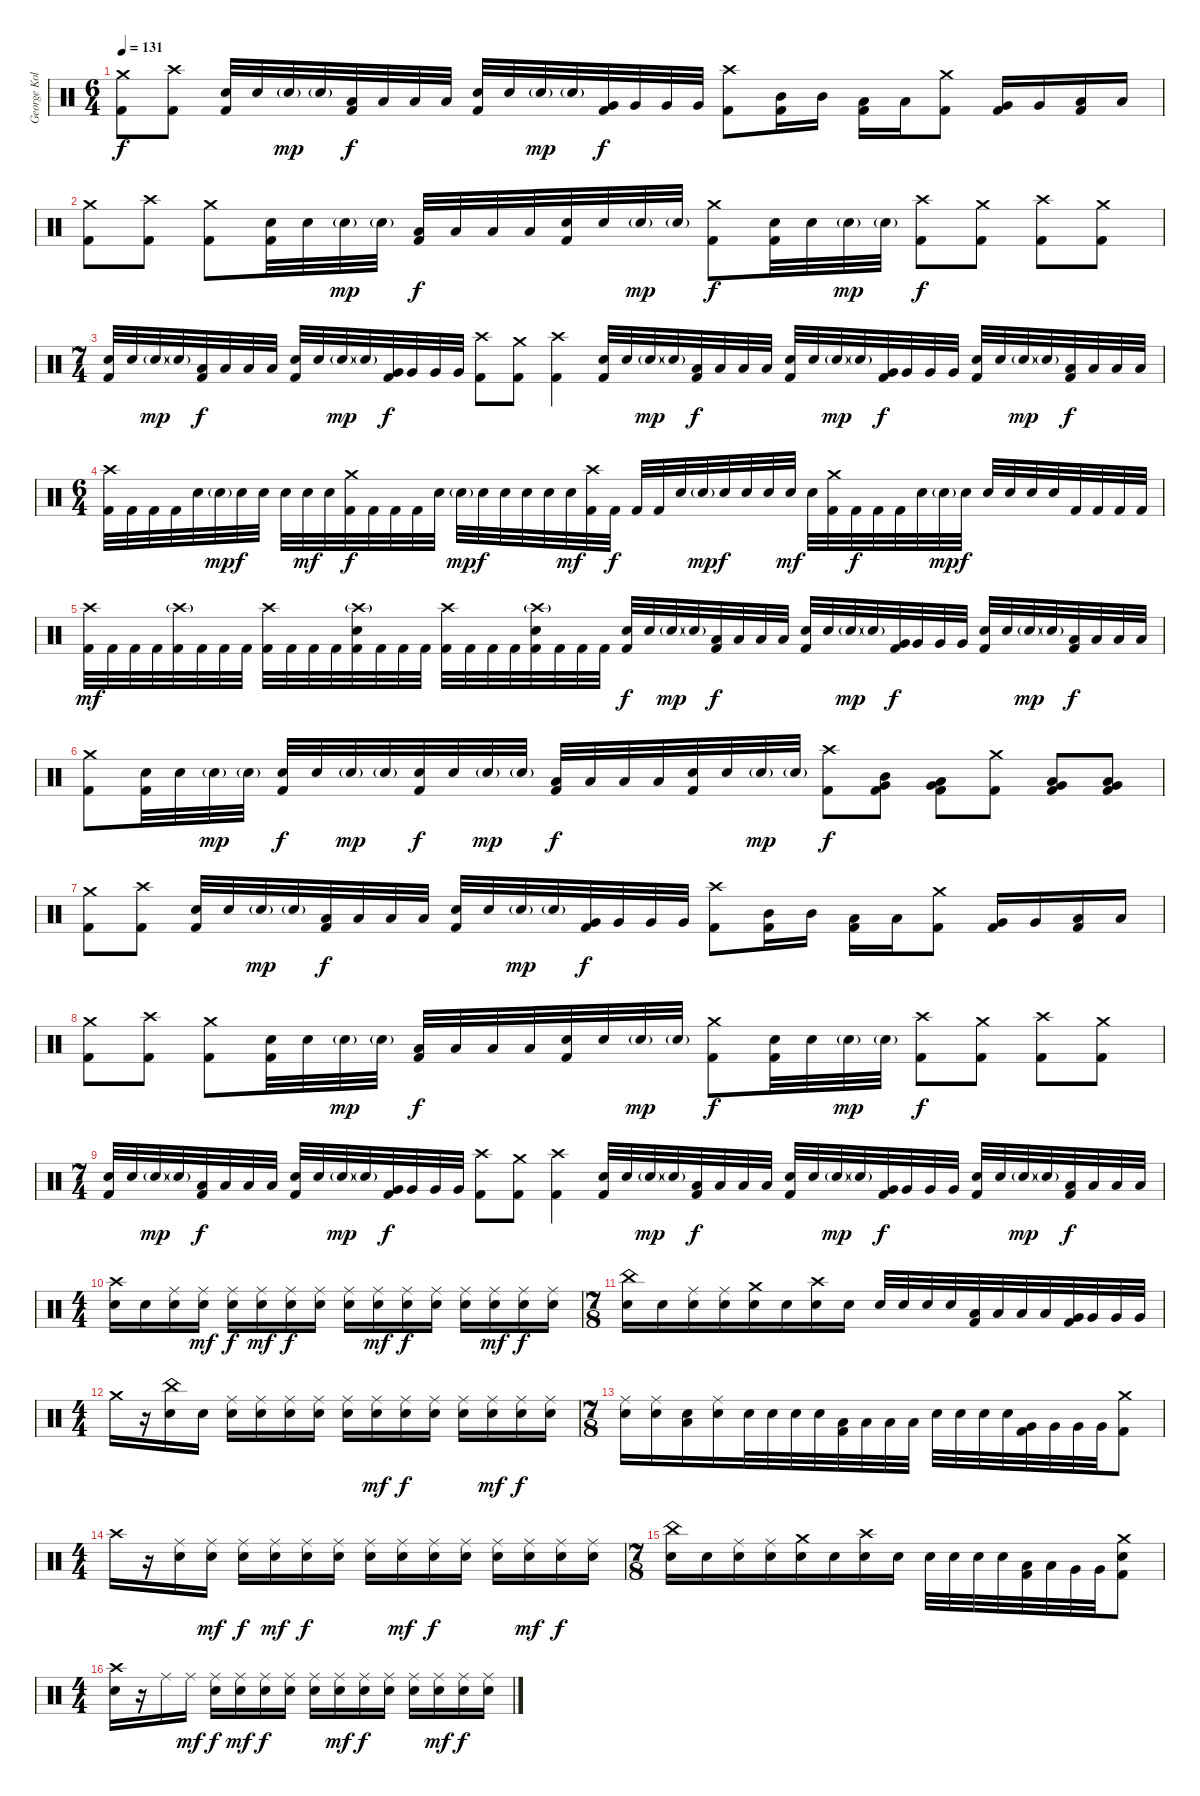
\track ("George Kollias" "George Kol") {instrument percussion}
\staff {score}
\articulation defaults
\ts (6 4)
\tempo 131
\clef neutral
\ks c
("Crash medium (hit)" "Kick (hit) 2").8{dy f} ("Crash high (hit)" "Kick (hit) 2").8 ("Electric Snare (hit)" "Kick (hit) 2").32 "Electric Snare (hit)".32 "Electric Snare (hit)"{g}.32{dy mp} "Electric Snare (hit)"{g}.32 ("Low Tom (hit)" "Kick (hit) 2").32{dy f} "Low Tom (hit)".32 "Low Tom (hit)".32 "Low Tom (hit)".32 ("Electric Snare (hit)" "Kick (hit) 2").32 "Electric Snare (hit)".32 "Electric Snare (hit)"{g}.32{dy mp} "Electric Snare (hit)"{g}.32 ("Very Low Tom (hit)" "Kick (hit) 2").32{dy f} "Very Low Tom (hit)".32 "Very Low Tom (hit)".32 "Very Low Tom (hit)".32 ("Crash high (hit)" "Kick (hit) 2").8 ("Mid Tom (hit)" "Kick (hit) 2").16 "Mid Tom (hit)".16 ("Low Tom (hit)" "Kick (hit) 2").16 "Low Tom (hit)".16 ("Crash medium (hit)" "Kick (hit) 2").8 ("Very Low Tom (hit)" "Kick (hit) 2").16 "Very Low Tom (hit)".16 ("Low Floor Tom (hit)" "Kick (hit) 2").16 "Low Floor Tom (hit)".16 |
("Crash medium (hit)" "Kick (hit) 2").8 ("Crash high (hit)" "Kick (hit) 2").8 ("Crash medium (hit)" "Kick (hit) 2").8 ("Electric Snare (hit)" "Kick (hit) 2").32 "Electric Snare (hit)".32 "Electric Snare (hit)"{g}.32{dy mp} "Electric Snare (hit)"{g}.32 ("Low Tom (hit)" "Kick (hit) 2").32{dy f} "Low Tom (hit)".32 "Low Tom (hit)".32 "Low Tom (hit)".32 ("Electric Snare (hit)" "Kick (hit) 2").32 "Electric Snare (hit)".32 "Electric Snare (hit)"{g}.32{dy mp} "Electric Snare (hit)"{g}.32 ("Crash medium (hit)" "Kick (hit) 2").8{dy f} ("Electric Snare (hit)" "Kick (hit) 2").32 "Electric Snare (hit)".32 "Electric Snare (hit)"{g}.32{dy mp} "Electric Snare (hit)"{g}.32 ("Crash high (hit)" "Kick (hit) 2").8{dy f} ("Crash medium (hit)" "Kick (hit) 2").8 ("Crash high (hit)" "Kick (hit) 2").8 ("Crash medium (hit)" "Kick (hit) 2").8 |
\ts (7 4)
("Electric Snare (hit)" "Kick (hit) 2").32 "Electric Snare (hit)".32 "Electric Snare (hit)"{g}.32{dy mp} "Electric Snare (hit)"{g}.32 ("Low Tom (hit)" "Kick (hit) 2").32{dy f} "Low Tom (hit)".32 "Low Tom (hit)".32 "Low Tom (hit)".32 ("Electric Snare (hit)" "Kick (hit) 2").32 "Electric Snare (hit)".32 "Electric Snare (hit)"{g}.32{dy mp} "Electric Snare (hit)"{g}.32 ("Very Low Tom (hit)" "Kick (hit) 2").32{dy f} "Very Low Tom (hit)".32 "Very Low Tom (hit)".32 "Very Low Tom (hit)".32 ("Crash high (hit)" "Kick (hit) 2").8 ("Crash medium (hit)" "Kick (hit) 2").8 ("Crash high (hit)" "Kick (hit) 2").4 ("Electric Snare (hit)" "Kick (hit) 2").32 "Electric Snare (hit)".32 "Electric Snare (hit)"{g}.32{dy mp} "Electric Snare (hit)"{g}.32 ("Low Tom (hit)" "Kick (hit) 2").32{dy f} "Low Tom (hit)".32 "Low Tom (hit)".32 "Low Tom (hit)".32 ("Electric Snare (hit)" "Kick (hit) 2").32 "Electric Snare (hit)".32 "Electric Snare (hit)"{g}.32{dy mp} "Electric Snare (hit)"{g}.32 ("Very Low Tom (hit)" "Kick (hit) 2").32{dy f} "Very Low Tom (hit)".32 "Very Low Tom (hit)".32 "Very Low Tom (hit)".32 ("Electric Snare (hit)" "Kick (hit) 2").32 "Electric Snare (hit)".32 "Electric Snare (hit)"{g}.32{dy mp} "Electric Snare (hit)"{g}.32 ("Low Floor Tom (hit)" "Kick (hit) 2").32{dy f} "Low Floor Tom (hit)".32 "Low Floor Tom (hit)".32 "Low Floor Tom (hit)".32 |
\ts (6 4)
("Crash high (hit)" "Kick (hit) 2").32 "Kick (hit) 2".32 "Kick (hit) 2".32 "Kick (hit) 2".32 "Electric Snare (hit)".32 "Electric Snare (hit)"{g}.32{dy mp} "Electric Snare (hit)".32{dy f} "Electric Snare (hit)".32 "Electric Snare (hit)".32 "Electric Snare (hit)".32{dy mf} "Electric Snare (hit)".32 ("Crash medium (hit)" "Kick (hit) 2").32{dy f} "Kick (hit) 2".32 "Kick (hit) 2".32 "Kick (hit) 2".32 "Electric Snare (hit)".32 "Electric Snare (hit)"{g}.32{dy mp} "Electric Snare (hit)".32{dy f} "Electric Snare (hit)".32 "Electric Snare (hit)".32 "Electric Snare (hit)".32 "Electric Snare (hit)".32{dy mf} ("Crash high (hit)" "Kick (hit) 2").32 "Kick (hit) 2".32{dy f} "Kick (hit) 2".32 "Kick (hit) 2".32 "Electric Snare (hit)".32 "Electric Snare (hit)"{g}.32{dy mp} "Electric Snare (hit)".32{dy f} "Electric Snare (hit)".32 "Electric Snare (hit)".32 "Electric Snare (hit)".32{dy mf} "Electric Snare (hit)".32 ("Crash medium (hit)" "Kick (hit) 2").32 "Kick (hit) 2".32{dy f} "Kick (hit) 2".32 "Kick (hit) 2".32 "Electric Snare (hit)".32 "Electric Snare (hit)"{g}.32{dy mp} "Electric Snare (hit)".32{dy f} "Electric Snare (hit)".32 "Electric Snare (hit)".32 "Electric Snare (hit)".32 "Electric Snare (hit)".32 "Kick (hit) 2".32 "Kick (hit) 2".32 "Kick (hit) 2".32 "Kick (hit) 2".32 |
("Crash high (hit)" "Kick (hit) 2").32{dy mf} "Kick (hit) 2".32 "Kick (hit) 2".32 "Kick (hit) 2".32 ("Crash high (hit)"{g} "Kick (hit) 2").32 "Kick (hit) 2".32 "Kick (hit) 2".32 "Kick (hit) 2".32 ("Crash high (hit)" "Kick (hit) 2").32 "Kick (hit) 2".32 "Kick (hit) 2".32 "Kick (hit) 2".32 ("Crash high (hit)"{g} "Electric Snare (hit)" "Kick (hit) 2").32 "Kick (hit) 2".32 "Kick (hit) 2".32 "Kick (hit) 2".32 ("Crash high (hit)" "Kick (hit) 2").32 "Kick (hit) 2".32 "Kick (hit) 2".32 "Kick (hit) 2".32 ("Crash high (hit)"{g} "Electric Snare (hit)" "Kick (hit) 2").32 "Kick (hit) 2".32 "Kick (hit) 2".32 "Kick (hit) 2".32 ("Electric Snare (hit)" "Kick (hit) 2").32{dy f} "Electric Snare (hit)".32 "Electric Snare (hit)"{g}.32{dy mp} "Electric Snare (hit)"{g}.32 ("Low Tom (hit)" "Kick (hit) 2").32{dy f} "Low Tom (hit)".32 "Low Tom (hit)".32 "Low Tom (hit)".32 ("Electric Snare (hit)" "Kick (hit) 2").32 "Electric Snare (hit)".32 "Electric Snare (hit)"{g}.32{dy mp} "Electric Snare (hit)"{g}.32 ("Very Low Tom (hit)" "Kick (hit) 2").32{dy f} "Very Low Tom (hit)".32 "Very Low Tom (hit)".32 "Very Low Tom (hit)".32 ("Electric Snare (hit)" "Kick (hit) 2").32 "Electric Snare (hit)".32 "Electric Snare (hit)"{g}.32{dy mp} "Electric Snare (hit)"{g}.32 ("Low Floor Tom (hit)" "Kick (hit) 2").32{dy f} "Low Floor Tom (hit)".32 "Low Floor Tom (hit)".32 "Low Floor Tom (hit)".32 |
("Crash medium (hit)" "Kick (hit) 2").8 ("Electric Snare (hit)" "Kick (hit) 2").32 "Electric Snare (hit)".32 "Electric Snare (hit)"{g}.32{dy mp} "Electric Snare (hit)"{g}.32 ("Electric Snare (hit)" "Kick (hit) 2").32{dy f} "Electric Snare (hit)".32 "Electric Snare (hit)"{g}.32{dy mp} "Electric Snare (hit)"{g}.32 ("Electric Snare (hit)" "Kick (hit) 2").32{dy f} "Electric Snare (hit)".32 "Electric Snare (hit)"{g}.32{dy mp} "Electric Snare (hit)"{g}.32 ("Low Tom (hit)" "Kick (hit) 2").32{dy f} "Low Tom (hit)".32 "Low Tom (hit)".32 "Low Tom (hit)".32 ("Electric Snare (hit)" "Kick (hit) 2").32 "Electric Snare (hit)".32 "Electric Snare (hit)"{g}.32{dy mp} "Electric Snare (hit)"{g}.32 ("Crash high (hit)" "Kick (hit) 2").8{dy f} ("Mid Tom (hit)" "Very Low Tom (hit)" "Kick (hit) 2").8 ("Low Tom (hit)" "Very Low Tom (hit)" "Kick (hit) 2").8 ("Crash medium (hit)" "Kick (hit) 2").8 ("Low Tom (hit)" "Very Low Tom (hit)" "Kick (hit) 2").8 ("Very Low Tom (hit)" "Low Floor Tom (hit)" "Kick (hit) 2").8 |
("Crash medium (hit)" "Kick (hit) 2").8 ("Crash high (hit)" "Kick (hit) 2").8 ("Electric Snare (hit)" "Kick (hit) 2").32 "Electric Snare (hit)".32 "Electric Snare (hit)"{g}.32{dy mp} "Electric Snare (hit)"{g}.32 ("Low Tom (hit)" "Kick (hit) 2").32{dy f} "Low Tom (hit)".32 "Low Tom (hit)".32 "Low Tom (hit)".32 ("Electric Snare (hit)" "Kick (hit) 2").32 "Electric Snare (hit)".32 "Electric Snare (hit)"{g}.32{dy mp} "Electric Snare (hit)"{g}.32 ("Very Low Tom (hit)" "Kick (hit) 2").32{dy f} "Very Low Tom (hit)".32 "Very Low Tom (hit)".32 "Very Low Tom (hit)".32 ("Crash high (hit)" "Kick (hit) 2").8 ("Mid Tom (hit)" "Kick (hit) 2").16 "Mid Tom (hit)".16 ("Low Tom (hit)" "Kick (hit) 2").16 "Low Tom (hit)".16 ("Crash medium (hit)" "Kick (hit) 2").8 ("Very Low Tom (hit)" "Kick (hit) 2").16 "Very Low Tom (hit)".16 ("Low Floor Tom (hit)" "Kick (hit) 2").16 "Low Floor Tom (hit)".16 |
("Crash medium (hit)" "Kick (hit) 2").8 ("Crash high (hit)" "Kick (hit) 2").8 ("Crash medium (hit)" "Kick (hit) 2").8 ("Electric Snare (hit)" "Kick (hit) 2").32 "Electric Snare (hit)".32 "Electric Snare (hit)"{g}.32{dy mp} "Electric Snare (hit)"{g}.32 ("Low Tom (hit)" "Kick (hit) 2").32{dy f} "Low Tom (hit)".32 "Low Tom (hit)".32 "Low Tom (hit)".32 ("Electric Snare (hit)" "Kick (hit) 2").32 "Electric Snare (hit)".32 "Electric Snare (hit)"{g}.32{dy mp} "Electric Snare (hit)"{g}.32 ("Crash medium (hit)" "Kick (hit) 2").8{dy f} ("Electric Snare (hit)" "Kick (hit) 2").32 "Electric Snare (hit)".32 "Electric Snare (hit)"{g}.32{dy mp} "Electric Snare (hit)"{g}.32 ("Crash high (hit)" "Kick (hit) 2").8{dy f} ("Crash medium (hit)" "Kick (hit) 2").8 ("Crash high (hit)" "Kick (hit) 2").8 ("Crash medium (hit)" "Kick (hit) 2").8 |
\ts (7 4)
("Electric Snare (hit)" "Kick (hit) 2").32 "Electric Snare (hit)".32 "Electric Snare (hit)"{g}.32{dy mp} "Electric Snare (hit)"{g}.32 ("Low Tom (hit)" "Kick (hit) 2").32{dy f} "Low Tom (hit)".32 "Low Tom (hit)".32 "Low Tom (hit)".32 ("Electric Snare (hit)" "Kick (hit) 2").32 "Electric Snare (hit)".32 "Electric Snare (hit)"{g}.32{dy mp} "Electric Snare (hit)"{g}.32 ("Very Low Tom (hit)" "Kick (hit) 2").32{dy f} "Very Low Tom (hit)".32 "Very Low Tom (hit)".32 "Very Low Tom (hit)".32 ("Crash high (hit)" "Kick (hit) 2").8 ("Crash medium (hit)" "Kick (hit) 2").8 ("Crash high (hit)" "Kick (hit) 2").4 ("Electric Snare (hit)" "Kick (hit) 2").32 "Electric Snare (hit)".32 "Electric Snare (hit)"{g}.32{dy mp} "Electric Snare (hit)"{g}.32 ("Low Tom (hit)" "Kick (hit) 2").32{dy f} "Low Tom (hit)".32 "Low Tom (hit)".32 "Low Tom (hit)".32 ("Electric Snare (hit)" "Kick (hit) 2").32 "Electric Snare (hit)".32 "Electric Snare (hit)"{g}.32{dy mp} "Electric Snare (hit)"{g}.32 ("Very Low Tom (hit)" "Kick (hit) 2").32{dy f} "Very Low Tom (hit)".32 "Very Low Tom (hit)".32 "Very Low Tom (hit)".32 ("Electric Snare (hit)" "Kick (hit) 2").32 "Electric Snare (hit)".32 "Electric Snare (hit)"{g}.32{dy mp} "Electric Snare (hit)"{g}.32 ("Low Floor Tom (hit)" "Kick (hit) 2").32{dy f} "Low Floor Tom (hit)".32 "Low Floor Tom (hit)".32 "Low Floor Tom (hit)".32 |
\ts (4 4)
("Crash high (hit)" "Electric Snare (hit)").16 "Electric Snare (hit)".16 ("Ride (middle)" "Electric Snare (hit)").16 ("Ride (middle)" "Electric Snare (hit)").16{dy mf} ("Ride (middle)" "Electric Snare (hit)").16{dy f} ("Ride (middle)" "Electric Snare (hit)").16{dy mf} ("Ride (middle)" "Electric Snare (hit)").16{dy f} ("Ride (middle)" "Electric Snare (hit)").16 ("Ride (middle)" "Electric Snare (hit)").16 ("Ride (middle)" "Electric Snare (hit)").16{dy mf} ("Ride (middle)" "Electric Snare (hit)").16{dy f} ("Ride (middle)" "Electric Snare (hit)").16 ("Ride (middle)" "Electric Snare (hit)").16 ("Ride (middle)" "Electric Snare (hit)").16{dy mf} ("Ride (middle)" "Electric Snare (hit)").16{dy f} ("Ride (middle)" "Electric Snare (hit)").16 |
\ts (7 8)
("China (hit)" "Electric Snare (hit)").16 "Electric Snare (hit)".16 ("Ride (middle)" "Electric Snare (hit)").16 ("Ride (middle)" "Electric Snare (hit)").16 ("Crash medium (hit)" "Electric Snare (hit)").16 "Electric Snare (hit)".16 ("Crash high (hit)" "Electric Snare (hit)").16 "Electric Snare (hit)".16 "Electric Snare (hit)".32 "Electric Snare (hit)".32 "Electric Snare (hit)".32 "Electric Snare (hit)".32 ("Low Tom (hit)" "Kick (hit) 2").32 "Low Tom (hit)".32 "Low Tom (hit)".32 "Low Tom (hit)".32 ("Very Low Tom (hit)" "Kick (hit) 2").32 "Very Low Tom (hit)".32 "Very Low Tom (hit)".32 "Very Low Tom (hit)".32 |
\ts (4 4)
"Crash medium (hit)".16 r.16 ("China (hit)" "Electric Snare (hit)").16 "Electric Snare (hit)".16 ("Ride (middle)" "Electric Snare (hit)").16 ("Ride (middle)" "Electric Snare (hit)").16 ("Ride (middle)" "Electric Snare (hit)").16 ("Ride (middle)" "Electric Snare (hit)").16 ("Ride (middle)" "Electric Snare (hit)").16 ("Ride (middle)" "Electric Snare (hit)").16{dy mf} ("Ride (middle)" "Electric Snare (hit)").16{dy f} ("Ride (middle)" "Electric Snare (hit)").16 ("Ride (middle)" "Electric Snare (hit)").16 ("Ride (middle)" "Electric Snare (hit)").16{dy mf} ("Ride (middle)" "Electric Snare (hit)").16{dy f} ("Ride (middle)" "Electric Snare (hit)").16 |
\ts (7 8)
("Ride (middle)" "Electric Snare (hit)").16 ("Ride (middle)" "Electric Snare (hit)").16 ("Low Floor Tom (hit)" "Electric Snare (hit)").16 ("Ride (middle)" "Electric Snare (hit)").16 "Electric Snare (hit)".32 "Electric Snare (hit)".32 "Electric Snare (hit)".32 "Electric Snare (hit)".32 ("Low Tom (hit)" "Kick (hit) 2").32 "Low Tom (hit)".32 "Low Tom (hit)".32 "Low Tom (hit)".32 "Electric Snare (hit)".32 "Electric Snare (hit)".32 "Electric Snare (hit)".32 "Electric Snare (hit)".32 ("Very Low Tom (hit)" "Kick (hit) 2").32 "Very Low Tom (hit)".32 "Very Low Tom (hit)".32 "Very Low Tom (hit)".32 ("Crash medium (hit)" "Kick (hit) 2").8 |
\ts (4 4)
"Crash high (hit)".16 r.16 ("Ride (middle)" "Electric Snare (hit)").16 ("Ride (middle)" "Electric Snare (hit)").16{dy mf} ("Ride (middle)" "Electric Snare (hit)").16{dy f} ("Ride (middle)" "Electric Snare (hit)").16{dy mf} ("Ride (middle)" "Electric Snare (hit)").16{dy f} ("Ride (middle)" "Electric Snare (hit)").16 ("Ride (middle)" "Electric Snare (hit)").16 ("Ride (middle)" "Electric Snare (hit)").16{dy mf} ("Ride (middle)" "Electric Snare (hit)").16{dy f} ("Ride (middle)" "Electric Snare (hit)").16 ("Ride (middle)" "Electric Snare (hit)").16 ("Ride (middle)" "Electric Snare (hit)").16{dy mf} ("Ride (middle)" "Electric Snare (hit)").16{dy f} ("Ride (middle)" "Electric Snare (hit)").16 |
\ts (7 8)
("China (hit)" "Electric Snare (hit)").16 "Electric Snare (hit)".16 ("Ride (middle)" "Electric Snare (hit)").16 ("Ride (middle)" "Electric Snare (hit)").16 ("Crash medium (hit)" "Electric Snare (hit)").16 "Electric Snare (hit)".16 ("Crash high (hit)" "Electric Snare (hit)").16 "Electric Snare (hit)".16 "Electric Snare (hit)".32 "Electric Snare (hit)".32 "Electric Snare (hit)".32 "Electric Snare (hit)".32 ("Low Tom (hit)" "Kick (hit) 2").32 "Low Tom (hit)".32 "Very Low Tom (hit)".32 "Very Low Tom (hit)".32 ("Crash medium (hit)" "Electric Snare (hit)" "Kick (hit) 2").8 |
\ts (4 4)
("Crash high (hit)" "Electric Snare (hit)").16 r.16 "Ride (middle)".16 "Ride (middle)".16{dy mf} ("Ride (middle)" "Electric Snare (hit)").16{dy f} ("Ride (middle)" "Electric Snare (hit)").16{dy mf} ("Ride (middle)" "Electric Snare (hit)").16{dy f} ("Ride (middle)" "Electric Snare (hit)").16 ("Ride (middle)" "Electric Snare (hit)").16 ("Ride (middle)" "Electric Snare (hit)").16{dy mf} ("Ride (middle)" "Electric Snare (hit)").16{dy f} ("Ride (middle)" "Electric Snare (hit)").16 ("Ride (middle)" "Electric Snare (hit)").16 ("Ride (middle)" "Electric Snare (hit)").16{dy mf} ("Ride (middle)" "Electric Snare (hit)").16{dy f} ("Ride (middle)" "Electric Snare (hit)").16
